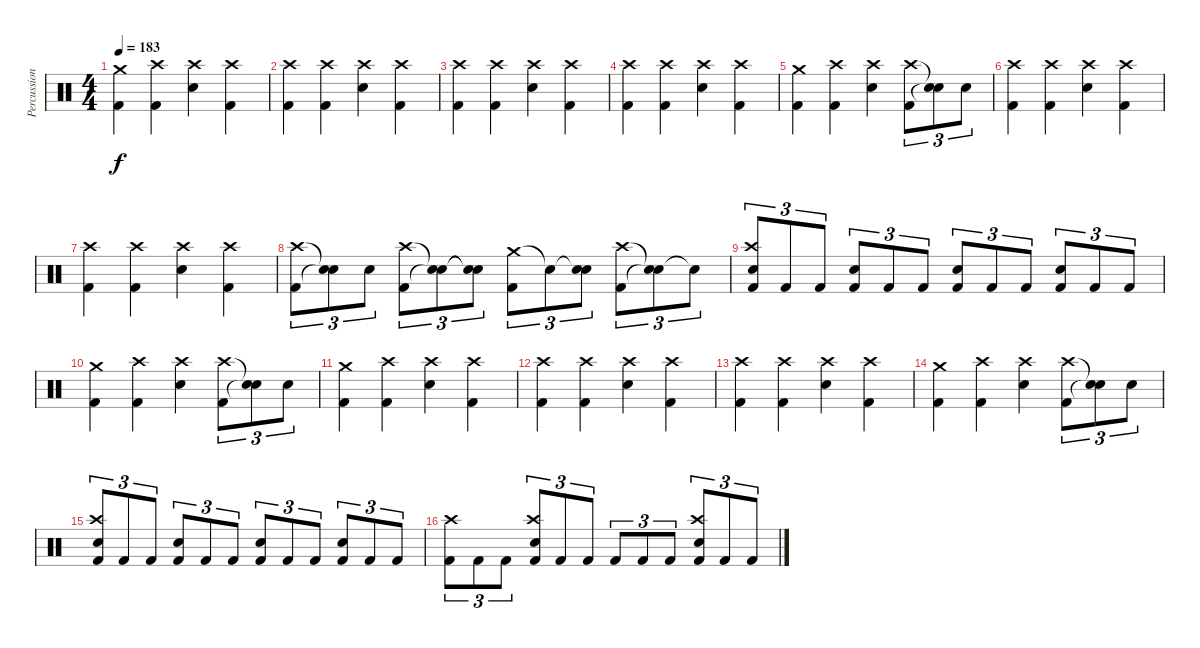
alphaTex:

\track ("Percussion" "Percussion") {instrument percussion}
\staff {score}
\articulation defaults
\ts (4 4)
\tempo 183
\clef neutral
\ks c
("Crash medium (hit)" "Kick (hit) 2").4{dy f} ("Crash high (hit)" "Kick (hit) 2").4 ("Crash high (hit)" "Electric Snare (hit)").4 ("Crash high (hit)" "Kick (hit) 2").4 |
("Crash high (hit)" "Kick (hit) 2").4 ("Crash high (hit)" "Kick (hit) 2").4 ("Crash high (hit)" "Electric Snare (hit)").4 ("Crash high (hit)" "Kick (hit) 2").4 |
("Crash high (hit)" "Kick (hit) 2").4 ("Crash high (hit)" "Kick (hit) 2").4 ("Crash high (hit)" "Electric Snare (hit)").4 ("Crash high (hit)" "Kick (hit) 2").4 |
("Crash high (hit)" "Kick (hit) 2").4 ("Crash high (hit)" "Kick (hit) 2").4 ("Crash high (hit)" "Electric Snare (hit)").4 ("Crash high (hit)" "Kick (hit) 2").4 |
("Crash medium (hit)" "Kick (hit) 2").4 ("Crash high (hit)" "Kick (hit) 2").4 ("Crash high (hit)" "Electric Snare (hit)").4 ("Crash high (hit)" "Kick (hit) 2").8{tu (3 2)} ("Snare (hit)"{t} "Snare (hit)"{t}).8{tu (3 2)} "Electric Snare (hit)".8{tu (3 2)} |
("Crash high (hit)" "Kick (hit) 2").4 ("Crash high (hit)" "Kick (hit) 2").4 ("Crash high (hit)" "Electric Snare (hit)").4 ("Crash high (hit)" "Kick (hit) 2").4 |
("Crash high (hit)" "Kick (hit) 2").4 ("Crash high (hit)" "Kick (hit) 2").4 ("Crash high (hit)" "Electric Snare (hit)").4 ("Crash high (hit)" "Kick (hit) 2").4 |
("Crash high (hit)" "Kick (hit) 2").8{tu (3 2)} ("Snare (hit)"{t} "Snare (hit)"{t}).8{tu (3 2)} "Electric Snare (hit)".8{tu (3 2)} ("Crash high (hit)" "Kick (hit) 2").8{tu (3 2)} ("Snare (hit)"{t} "Snare (hit)"{t}).8{tu (3 2)} ("Snare (hit)"{t} "Snare (hit)"{t}).8{tu (3 2)} ("Crash medium (hit)" "Kick (hit) 2").8{tu (3 2)} "Snare (hit)"{t}.8{tu (3 2)} ("Snare (hit)"{t} "Electric Snare (hit)").8{tu (3 2)} ("Crash high (hit)" "Kick (hit) 2").8{tu (3 2)} ("Snare (hit)"{t} "Snare (hit)"{t}).8{tu (3 2)} "Snare (hit)"{t}.8{tu (3 2)} |
("Crash high (hit)" "Electric Snare (hit)" "Kick (hit) 2").8{tu (3 2)} "Kick (hit) 2".8{tu (3 2)} "Kick (hit) 2".8{tu (3 2)} ("Electric Snare (hit)" "Kick (hit) 2").8{tu (3 2)} "Kick (hit) 2".8{tu (3 2)} "Kick (hit) 2".8{tu (3 2)} ("Electric Snare (hit)" "Kick (hit) 2").8{tu (3 2)} "Kick (hit) 2".8{tu (3 2)} "Kick (hit) 2".8{tu (3 2)} ("Electric Snare (hit)" "Kick (hit) 2").8{tu (3 2)} "Kick (hit) 2".8{tu (3 2)} "Kick (hit) 2".8{tu (3 2)} |
("Crash medium (hit)" "Kick (hit) 2").4 ("Crash high (hit)" "Kick (hit) 2").4 ("Crash high (hit)" "Electric Snare (hit)").4 ("Crash high (hit)" "Kick (hit) 2").8{tu (3 2)} ("Snare (hit)"{t} "Snare (hit)"{t}).8{tu (3 2)} "Electric Snare (hit)".8{tu (3 2)} |
("Crash medium (hit)" "Kick (hit) 2").4 ("Crash high (hit)" "Kick (hit) 2").4 ("Crash high (hit)" "Electric Snare (hit)").4 ("Crash high (hit)" "Kick (hit) 2").4 |
("Crash high (hit)" "Kick (hit) 2").4 ("Crash high (hit)" "Kick (hit) 2").4 ("Crash high (hit)" "Electric Snare (hit)").4 ("Crash high (hit)" "Kick (hit) 2").4 |
("Crash high (hit)" "Kick (hit) 2").4 ("Crash high (hit)" "Kick (hit) 2").4 ("Crash high (hit)" "Electric Snare (hit)").4 ("Crash high (hit)" "Kick (hit) 2").4 |
("Crash medium (hit)" "Kick (hit) 2").4 ("Crash high (hit)" "Kick (hit) 2").4 ("Crash high (hit)" "Electric Snare (hit)").4 ("Crash high (hit)" "Kick (hit) 2").8{tu (3 2)} ("Snare (hit)"{t} "Snare (hit)"{t}).8{tu (3 2)} "Electric Snare (hit)".8{tu (3 2)} |
("Crash high (hit)" "Electric Snare (hit)" "Kick (hit) 2").8{tu (3 2)} "Kick (hit) 2".8{tu (3 2)} "Kick (hit) 2".8{tu (3 2)} ("Electric Snare (hit)" "Kick (hit) 2").8{tu (3 2)} "Kick (hit) 2".8{tu (3 2)} "Kick (hit) 2".8{tu (3 2)} ("Electric Snare (hit)" "Kick (hit) 2").8{tu (3 2)} "Kick (hit) 2".8{tu (3 2)} "Kick (hit) 2".8{tu (3 2)} ("Electric Snare (hit)" "Kick (hit) 2").8{tu (3 2)} "Kick (hit) 2".8{tu (3 2)} "Kick (hit) 2".8{tu (3 2)} |
("Crash high (hit)" "Kick (hit) 2").8{tu (3 2)} "Kick (hit) 2".8{tu (3 2)} "Kick (hit) 2".8{tu (3 2)} ("Crash high (hit)" "Electric Snare (hit)" "Kick (hit) 2").8{tu (3 2)} "Kick (hit) 2".8{tu (3 2)} "Kick (hit) 2".8{tu (3 2)} "Kick (hit) 2".8{tu (3 2)} "Kick (hit) 2".8{tu (3 2)} "Kick (hit) 2".8{tu (3 2)} ("Crash high (hit)" "Electric Snare (hit)" "Kick (hit) 2").8{tu (3 2)} "Kick (hit) 2".8{tu (3 2)} "Kick (hit) 2".8{tu (3 2)}
